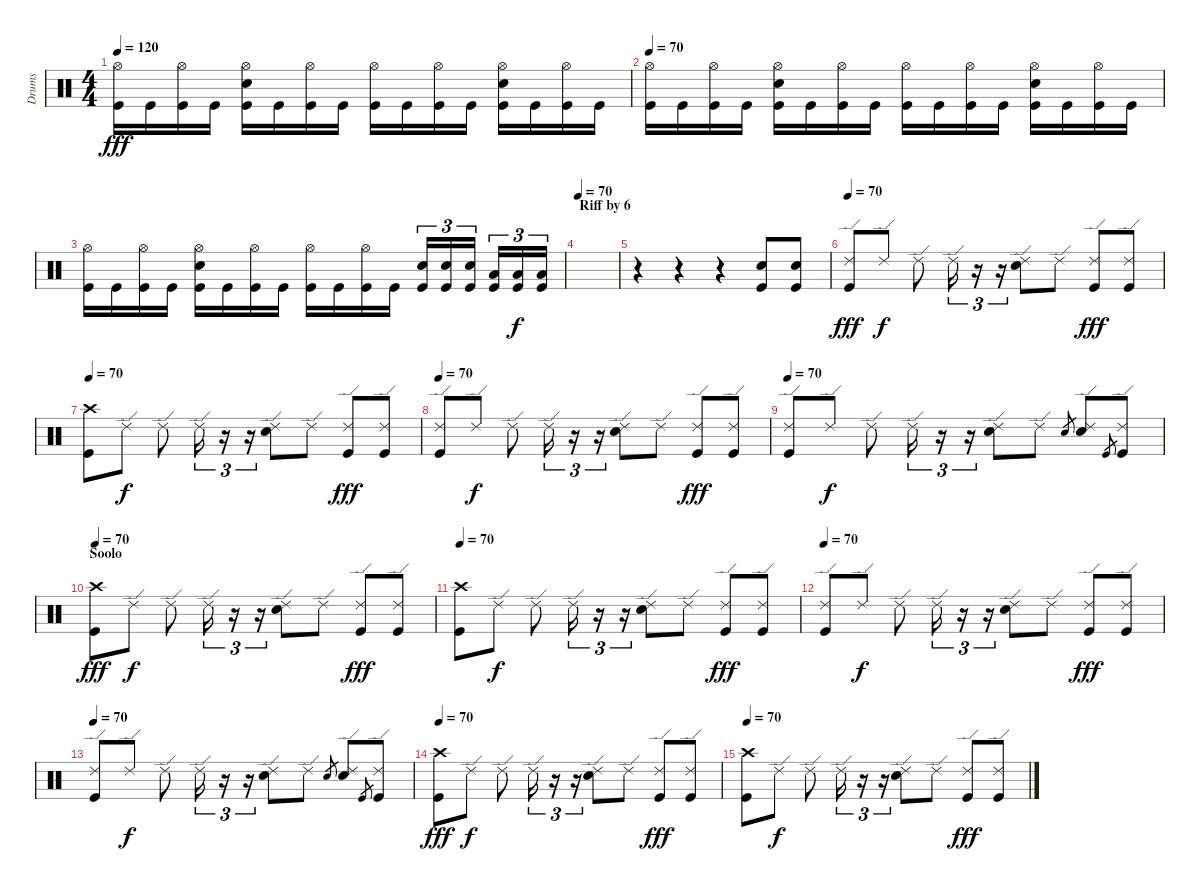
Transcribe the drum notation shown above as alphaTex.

\track ("Drums" "Drums") {instrument percussion}
\staff {score}
\articulation defaults
\ts (4 4)
\tempo 120
\clef neutral
\ks c
("Hi-Hat (open)" "Kick (hit)").16{dy fff} "Kick (hit)".16 ("Hi-Hat (open)" "Kick (hit)").16 "Kick (hit)".16 ("Hi-Hat (open)" "Electric Snare (hit)" "Kick (hit)").16 "Kick (hit)".16 ("Hi-Hat (open)" "Kick (hit)").16 "Kick (hit)".16 ("Hi-Hat (open)" "Kick (hit)").16 "Kick (hit)".16 ("Hi-Hat (open)" "Kick (hit)").16 "Kick (hit)".16 ("Hi-Hat (open)" "Electric Snare (hit)" "Kick (hit)").16 "Kick (hit)".16 ("Hi-Hat (open)" "Kick (hit)").16 "Kick (hit)".16 |
\tempo 70
("Hi-Hat (open)" "Kick (hit)").16 "Kick (hit)".16 ("Hi-Hat (open)" "Kick (hit)").16 "Kick (hit)".16 ("Hi-Hat (open)" "Electric Snare (hit)" "Kick (hit)").16 "Kick (hit)".16 ("Hi-Hat (open)" "Kick (hit)").16 "Kick (hit)".16 ("Hi-Hat (open)" "Kick (hit)").16 "Kick (hit)".16 ("Hi-Hat (open)" "Kick (hit)").16 "Kick (hit)".16 ("Hi-Hat (open)" "Electric Snare (hit)" "Kick (hit)").16 "Kick (hit)".16 ("Hi-Hat (open)" "Kick (hit)").16 "Kick (hit)".16 |
("Hi-Hat (open)" "Kick (hit)").16 "Kick (hit)".16 ("Hi-Hat (open)" "Kick (hit)").16 "Kick (hit)".16 ("Hi-Hat (open)" "Electric Snare (hit)" "Kick (hit)").16 "Kick (hit)".16 ("Hi-Hat (open)" "Kick (hit)").16 "Kick (hit)".16 ("Hi-Hat (open)" "Kick (hit)").16 "Kick (hit)".16 ("Hi-Hat (open)" "Kick (hit)").16 "Kick (hit)".16 ("Electric Snare (hit)" "Kick (hit)").16{tu (3 2)} ("Electric Snare (hit)" "Kick (hit)").16{tu (3 2)} ("Electric Snare (hit)" "Kick (hit)").16{tu (3 2)} ("Low Tom (hit)" "Kick (hit)").16{tu (3 2)} ("Low Tom (hit)" "Kick (hit)").16{tu (3 2) dy f} ("Low Tom (hit)" "Kick (hit)").16{tu (3 2)} |
\section ("" "Riff by 6")
\tempo 70
|
r.4 r.4 r.4 ("Electric Snare (hit)" "Kick (hit)").8 ("Electric Snare (hit)" "Kick (hit)").8 |
\tempo 70
("Ride (edge) 2" "Kick (hit)").8{dy fff} "Ride (edge) 2".8{dy f} "Ride (edge) 2".8 "Ride (edge) 2".16{tu (3 2)} r.16{tu (3 2)} r.16{tu (3 2)} ("Ride (edge) 2" "Electric Snare (hit)").8 "Ride (edge) 2".8 ("Ride (edge) 2" "Kick (hit)").8{dy fff} ("Ride (edge) 2" "Kick (hit)").8 |
\tempo 70
("Crash high (hit)" "Kick (hit)").8 "Ride (edge) 2".8{dy f} "Ride (edge) 2".8 "Ride (edge) 2".16{tu (3 2)} r.16{tu (3 2)} r.16{tu (3 2)} ("Ride (edge) 2" "Electric Snare (hit)").8 "Ride (edge) 2".8 ("Ride (edge) 2" "Kick (hit)").8{dy fff} ("Ride (edge) 2" "Kick (hit)").8 |
\tempo 70
("Ride (edge) 2" "Kick (hit)").8 "Ride (edge) 2".8{dy f} "Ride (edge) 2".8 "Ride (edge) 2".16{tu (3 2)} r.16{tu (3 2)} r.16{tu (3 2)} ("Ride (edge) 2" "Electric Snare (hit)").8 "Ride (edge) 2".8 ("Ride (edge) 2" "Kick (hit)").8{dy fff} ("Ride (edge) 2" "Kick (hit)").8 |
\tempo 70
("Ride (edge) 2" "Kick (hit)").8 "Ride (edge) 2".8{dy f} "Ride (edge) 2".8 "Ride (edge) 2".16{tu (3 2)} r.16{tu (3 2)} r.16{tu (3 2)} ("Ride (edge) 2" "Electric Snare (hit)").8 "Ride (edge) 2".8 "Electric Snare (hit)".8{gr} ("Ride (edge) 2" "Electric Snare (hit)").8 "Kick (hit)".8{gr} ("Ride (edge) 2" "Kick (hit)").8 |
\section ("" "Soolo")
\tempo 70
("Crash high (hit)" "Kick (hit)").8{dy fff} "Ride (edge) 2".8{dy f} "Ride (edge) 2".8 "Ride (edge) 2".16{tu (3 2)} r.16{tu (3 2)} r.16{tu (3 2)} ("Ride (edge) 2" "Electric Snare (hit)").8 "Ride (edge) 2".8 ("Ride (edge) 2" "Kick (hit)").8{dy fff} ("Ride (edge) 2" "Kick (hit)").8 |
\tempo 70
("Crash high (hit)" "Kick (hit)").8 "Ride (edge) 2".8{dy f} "Ride (edge) 2".8 "Ride (edge) 2".16{tu (3 2)} r.16{tu (3 2)} r.16{tu (3 2)} ("Ride (edge) 2" "Electric Snare (hit)").8 "Ride (edge) 2".8 ("Ride (edge) 2" "Kick (hit)").8{dy fff} ("Ride (edge) 2" "Kick (hit)").8 |
\tempo 70
("Ride (edge) 2" "Kick (hit)").8{volume 0} "Ride (edge) 2".8{dy f} "Ride (edge) 2".8 "Ride (edge) 2".16{tu (3 2)} r.16{tu (3 2)} r.16{tu (3 2)} ("Ride (edge) 2" "Electric Snare (hit)").8 "Ride (edge) 2".8 ("Ride (edge) 2" "Kick (hit)").8{dy fff} ("Ride (edge) 2" "Kick (hit)").8 |
\tempo 70
("Ride (edge) 2" "Kick (hit)").8 "Ride (edge) 2".8{dy f} "Ride (edge) 2".8 "Ride (edge) 2".16{tu (3 2)} r.16{tu (3 2)} r.16{tu (3 2)} ("Ride (edge) 2" "Electric Snare (hit)").8 "Ride (edge) 2".8 "Electric Snare (hit)".8{gr} ("Ride (edge) 2" "Electric Snare (hit)").8 "Kick (hit)".8{gr} ("Ride (edge) 2" "Kick (hit)").8 |
\tempo 70
("Crash high (hit)" "Kick (hit)").8{dy fff} "Ride (edge) 2".8{dy f} "Ride (edge) 2".8 "Ride (edge) 2".16{tu (3 2)} r.16{tu (3 2)} r.16{tu (3 2)} ("Ride (edge) 2" "Electric Snare (hit)").8 "Ride (edge) 2".8 ("Ride (edge) 2" "Kick (hit)").8{dy fff} ("Ride (edge) 2" "Kick (hit)").8 |
\tempo 70
("Crash high (hit)" "Kick (hit)").8 "Ride (edge) 2".8{dy f} "Ride (edge) 2".8 "Ride (edge) 2".16{tu (3 2)} r.16{tu (3 2)} r.16{tu (3 2)} ("Ride (edge) 2" "Electric Snare (hit)").8 "Ride (edge) 2".8 ("Ride (edge) 2" "Kick (hit)").8{dy fff} ("Ride (edge) 2" "Kick (hit)").8
